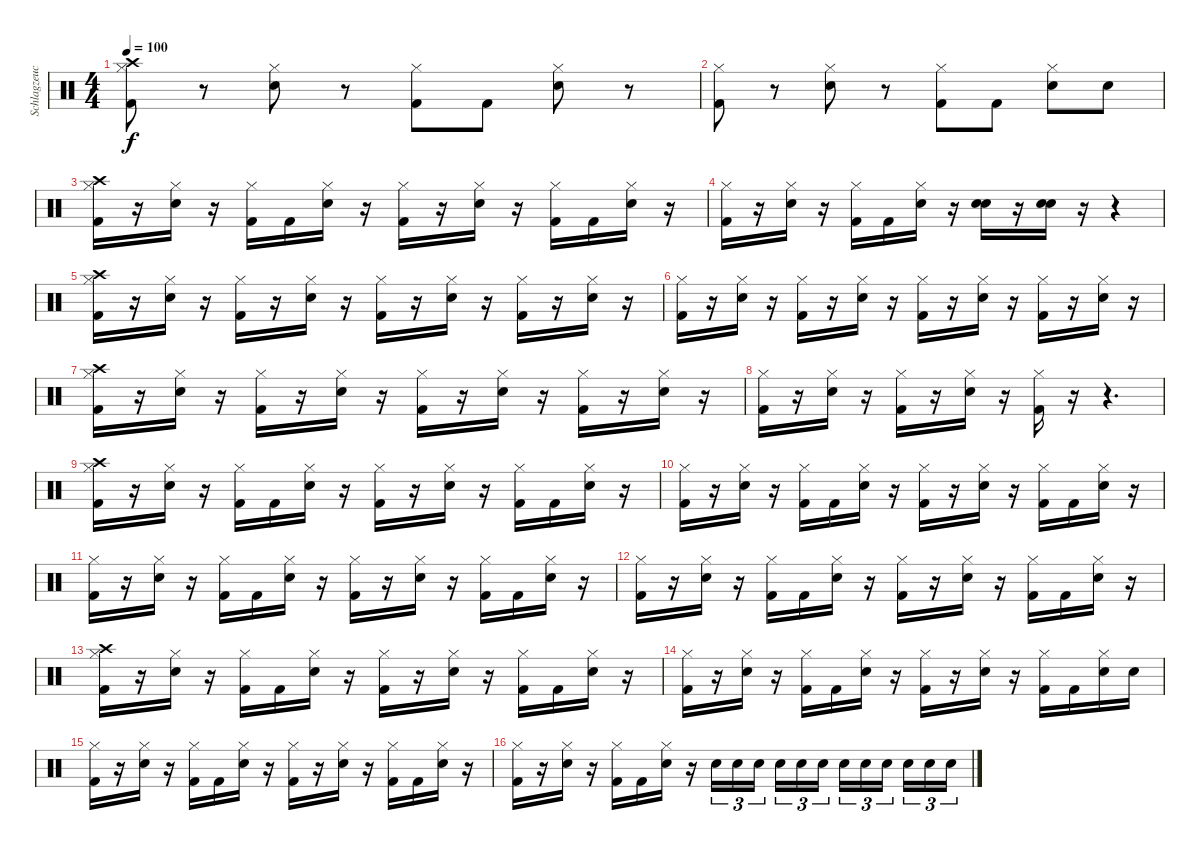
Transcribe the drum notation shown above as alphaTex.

\track ("Schlagzeuch" "Schlagzeuc") {instrument percussion}
\staff {score}
\articulation defaults
\ts (4 4)
\tempo 100
\clef neutral
\ks c
("Hi-Hat (closed)" "Kick (hit) 2" "Crash high (hit)").8{dy f} r.8 ("Hi-Hat (closed)" "Snare (hit) 2").8 r.8 ("Hi-Hat (closed)" "Kick (hit) 2").8 "Kick (hit) 2".8 ("Hi-Hat (closed)" "Snare (hit) 2").8 r.8 |
("Hi-Hat (closed)" "Kick (hit) 2").8 r.8 ("Hi-Hat (closed)" "Snare (hit) 2").8 r.8 ("Hi-Hat (closed)" "Kick (hit) 2").8 "Kick (hit) 2".8 ("Hi-Hat (closed)" "Snare (hit) 2").8 "Snare (hit) 2".8 |
("Hi-Hat (closed)" "Kick (hit) 2" "Crash high (hit)").16 r.16 ("Hi-Hat (closed)" "Snare (hit) 2").16 r.16 ("Hi-Hat (closed)" "Kick (hit) 2").16 "Kick (hit) 2".16 ("Hi-Hat (closed)" "Snare (hit) 2").16 r.16 ("Hi-Hat (closed)" "Kick (hit) 2").16 r.16 ("Hi-Hat (closed)" "Snare (hit) 2").16 r.16 ("Hi-Hat (closed)" "Kick (hit) 2").16 "Kick (hit) 2".16 ("Hi-Hat (closed)" "Snare (hit) 2").16 r.16 |
("Hi-Hat (closed)" "Kick (hit) 2").16 r.16 ("Hi-Hat (closed)" "Snare (hit) 2").16 r.16 ("Hi-Hat (closed)" "Kick (hit) 2").16 "Kick (hit) 2".16 ("Hi-Hat (closed)" "Snare (hit) 2").16 r.16 ("Snare (hit) 2" "Snare (hit) 2").16 r.16 ("Snare (hit) 2" "Snare (hit) 2").16 r.16 r.4 |
("Hi-Hat (closed)" "Kick (hit) 2" "Crash high (hit)").16 r.16 ("Hi-Hat (closed)" "Snare (hit) 2").16 r.16 ("Hi-Hat (closed)" "Kick (hit) 2").16 r.16 ("Hi-Hat (closed)" "Snare (hit) 2").16 r.16 ("Hi-Hat (closed)" "Kick (hit) 2").16 r.16 ("Hi-Hat (closed)" "Snare (hit) 2").16 r.16 ("Hi-Hat (closed)" "Kick (hit) 2").16 r.16 ("Hi-Hat (closed)" "Snare (hit) 2").16 r.16 |
("Hi-Hat (closed)" "Kick (hit) 2").16 r.16 ("Hi-Hat (closed)" "Snare (hit) 2").16 r.16 ("Hi-Hat (closed)" "Kick (hit) 2").16 r.16 ("Hi-Hat (closed)" "Snare (hit) 2").16 r.16 ("Hi-Hat (closed)" "Kick (hit) 2").16 r.16 ("Hi-Hat (closed)" "Snare (hit) 2").16 r.16 ("Hi-Hat (closed)" "Kick (hit) 2").16 r.16 ("Hi-Hat (closed)" "Snare (hit) 2").16 r.16 |
("Hi-Hat (closed)" "Kick (hit) 2" "Crash high (hit)").16 r.16 ("Hi-Hat (closed)" "Snare (hit) 2").16 r.16 ("Hi-Hat (closed)" "Kick (hit) 2").16 r.16 ("Hi-Hat (closed)" "Snare (hit) 2").16 r.16 ("Hi-Hat (closed)" "Kick (hit) 2").16 r.16 ("Hi-Hat (closed)" "Snare (hit) 2").16 r.16 ("Hi-Hat (closed)" "Kick (hit) 2").16 r.16 ("Hi-Hat (closed)" "Snare (hit) 2").16 r.16 |
("Hi-Hat (closed)" "Kick (hit) 2").16 r.16 ("Hi-Hat (closed)" "Snare (hit) 2").16 r.16 ("Hi-Hat (closed)" "Kick (hit) 2").16 r.16 ("Hi-Hat (closed)" "Snare (hit) 2").16 r.16 ("Hi-Hat (closed)" "Kick (hit) 2").16 r.16 r.4{d} |
("Hi-Hat (closed)" "Kick (hit) 2" "Crash high (hit)").16 r.16 ("Hi-Hat (closed)" "Snare (hit) 2").16 r.16 ("Hi-Hat (closed)" "Kick (hit) 2").16 "Kick (hit) 2".16 ("Hi-Hat (closed)" "Snare (hit) 2").16 r.16 ("Hi-Hat (closed)" "Kick (hit) 2").16 r.16 ("Hi-Hat (closed)" "Snare (hit) 2").16 r.16 ("Hi-Hat (closed)" "Kick (hit) 2").16 "Kick (hit) 2".16 ("Hi-Hat (closed)" "Snare (hit) 2").16 r.16 |
("Hi-Hat (closed)" "Kick (hit) 2").16 r.16 ("Hi-Hat (closed)" "Snare (hit) 2").16 r.16 ("Hi-Hat (closed)" "Kick (hit) 2").16 "Kick (hit) 2".16 ("Hi-Hat (closed)" "Snare (hit) 2").16 r.16 ("Hi-Hat (closed)" "Kick (hit) 2").16 r.16 ("Hi-Hat (closed)" "Snare (hit) 2").16 r.16 ("Hi-Hat (closed)" "Kick (hit) 2").16 "Kick (hit) 2".16 ("Hi-Hat (closed)" "Snare (hit) 2").16 r.16 |
("Hi-Hat (closed)" "Kick (hit) 2").16 r.16 ("Hi-Hat (closed)" "Snare (hit) 2").16 r.16 ("Hi-Hat (closed)" "Kick (hit) 2").16 "Kick (hit) 2".16 ("Hi-Hat (closed)" "Snare (hit) 2").16 r.16 ("Hi-Hat (closed)" "Kick (hit) 2").16 r.16 ("Hi-Hat (closed)" "Snare (hit) 2").16 r.16 ("Hi-Hat (closed)" "Kick (hit) 2").16 "Kick (hit) 2".16 ("Hi-Hat (closed)" "Snare (hit) 2").16 r.16 |
("Hi-Hat (closed)" "Kick (hit) 2").16 r.16 ("Hi-Hat (closed)" "Snare (hit) 2").16 r.16 ("Hi-Hat (closed)" "Kick (hit) 2").16 "Kick (hit) 2".16 ("Hi-Hat (closed)" "Snare (hit) 2").16 r.16 ("Hi-Hat (closed)" "Kick (hit) 2").16 r.16 ("Hi-Hat (closed)" "Snare (hit) 2").16 r.16 ("Hi-Hat (closed)" "Kick (hit) 2").16 "Kick (hit) 2".16 ("Hi-Hat (closed)" "Snare (hit) 2").16 r.16 |
("Hi-Hat (closed)" "Kick (hit) 2" "Crash high (hit)").16 r.16 ("Hi-Hat (closed)" "Snare (hit) 2").16 r.16 ("Hi-Hat (closed)" "Kick (hit) 2").16 "Kick (hit) 2".16 ("Hi-Hat (closed)" "Snare (hit) 2").16 r.16 ("Hi-Hat (closed)" "Kick (hit) 2").16 r.16 ("Hi-Hat (closed)" "Snare (hit) 2").16 r.16 ("Hi-Hat (closed)" "Kick (hit) 2").16 "Kick (hit) 2".16 ("Hi-Hat (closed)" "Snare (hit) 2").16 r.16 |
("Hi-Hat (closed)" "Kick (hit) 2").16 r.16 ("Hi-Hat (closed)" "Snare (hit) 2").16 r.16 ("Hi-Hat (closed)" "Kick (hit) 2").16 "Kick (hit) 2".16 ("Hi-Hat (closed)" "Snare (hit) 2").16 r.16 ("Hi-Hat (closed)" "Kick (hit) 2").16 r.16 ("Hi-Hat (closed)" "Snare (hit) 2").16 r.16 ("Hi-Hat (closed)" "Kick (hit) 2").16 "Kick (hit) 2".16 ("Hi-Hat (closed)" "Snare (hit) 2").16 "Snare (hit) 2".16 |
("Hi-Hat (closed)" "Kick (hit) 2").16 r.16 ("Hi-Hat (closed)" "Snare (hit) 2").16 r.16 ("Hi-Hat (closed)" "Kick (hit) 2").16 "Kick (hit) 2".16 ("Hi-Hat (closed)" "Snare (hit) 2").16 r.16 ("Hi-Hat (closed)" "Kick (hit) 2").16 r.16 ("Hi-Hat (closed)" "Snare (hit) 2").16 r.16 ("Hi-Hat (closed)" "Kick (hit) 2").16 "Kick (hit) 2".16 ("Hi-Hat (closed)" "Snare (hit) 2").16 r.16 |
("Hi-Hat (closed)" "Kick (hit) 2").16 r.16 ("Hi-Hat (closed)" "Snare (hit) 2").16 r.16 ("Hi-Hat (closed)" "Kick (hit) 2").16 "Kick (hit) 2".16 ("Hi-Hat (closed)" "Snare (hit) 2").16 r.16 "Snare (hit) 2".16{tu (3 2)} "Snare (hit) 2".16{tu (3 2)} "Snare (hit) 2".16{tu (3 2) beam splitsecondary} "Snare (hit) 2".16{tu (3 2)} "Snare (hit) 2".16{tu (3 2)} "Snare (hit) 2".16{tu (3 2)} "Snare (hit) 2".16{tu (3 2)} "Snare (hit) 2".16{tu (3 2)} "Snare (hit) 2".16{tu (3 2) beam splitsecondary} "Snare (hit) 2".16{tu (3 2)} "Snare (hit) 2".16{tu (3 2)} "Snare (hit) 2".16{tu (3 2)}
